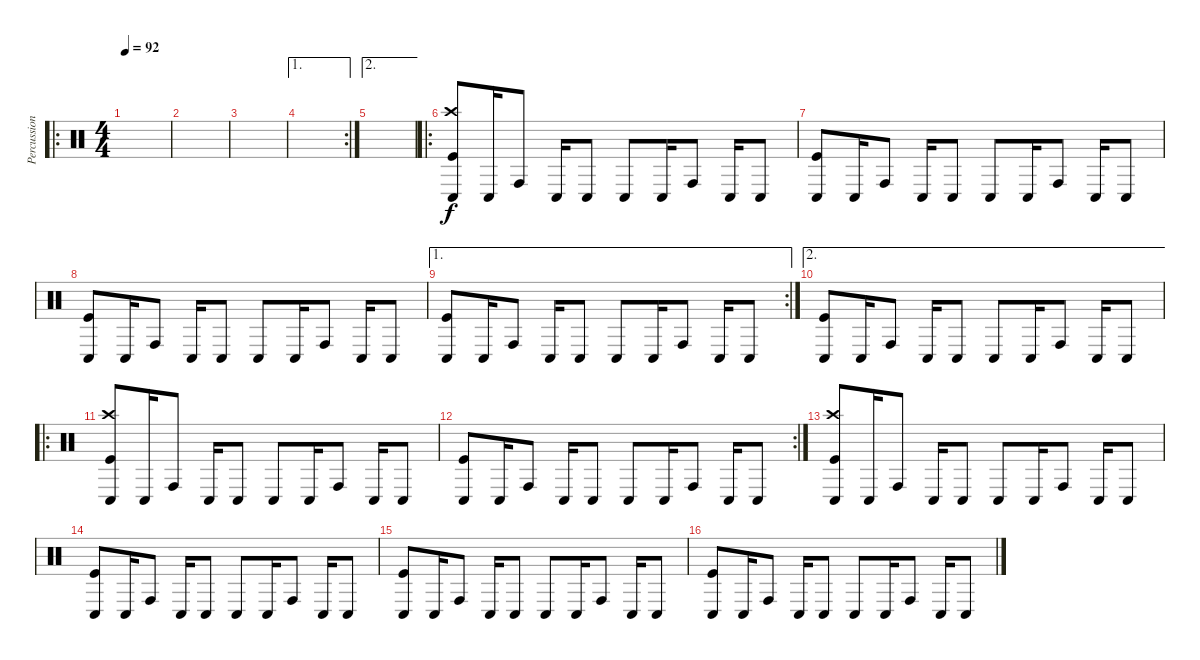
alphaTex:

\track ("Percussion" "Percussion") {instrument percussion}
\staff {score}
\articulation defaults
\ro
\ts (4 4)
\tempo 92
\clef neutral
\ks c
|
|
|
\ae 1
\rc 2
|
\ae 2
|
\ro
("Kick (hit)" "Crash high (hit)" "Conga low (hit)").8 "Conga low (hit)".16 "Conga high (hit)".8 "Conga low (hit)".16 "Conga low (hit)".8 "Conga low (hit)".8 "Conga low (hit)".16 "Conga high (hit)".8 "Conga low (hit)".16 "Conga low (hit)".8 |
("Kick (hit)" "Conga low (hit)").8 "Conga low (hit)".16 "Conga high (hit)".8 "Conga low (hit)".16 "Conga low (hit)".8 "Conga low (hit)".8 "Conga low (hit)".16 "Conga high (hit)".8 "Conga low (hit)".16 "Conga low (hit)".8 |
("Kick (hit)" "Conga low (hit)").8 "Conga low (hit)".16 "Conga high (hit)".8 "Conga low (hit)".16 "Conga low (hit)".8 "Conga low (hit)".8 "Conga low (hit)".16 "Conga high (hit)".8 "Conga low (hit)".16 "Conga low (hit)".8 |
\ae 1
\rc 2
("Kick (hit)" "Conga low (hit)").8 "Conga low (hit)".16 "Conga high (hit)".8 "Conga low (hit)".16 "Conga low (hit)".8 "Conga low (hit)".8 "Conga low (hit)".16 "Conga high (hit)".8 "Conga low (hit)".16 "Conga low (hit)".8 |
\ae 2
("Kick (hit)" "Conga low (hit)").8 "Conga low (hit)".16 "Conga high (hit)".8 "Conga low (hit)".16 "Conga low (hit)".8 "Conga low (hit)".8 "Conga low (hit)".16 "Conga high (hit)".8 "Conga low (hit)".16 "Conga low (hit)".8 |
\ro
("Kick (hit)" "Crash high (hit)" "Conga low (hit)").8 "Conga low (hit)".16 "Conga high (hit)".8 "Conga low (hit)".16 "Conga low (hit)".8 "Conga low (hit)".8 "Conga low (hit)".16 "Conga high (hit)".8 "Conga low (hit)".16 "Conga low (hit)".8 |
\rc 2
("Kick (hit)" "Conga low (hit)").8 "Conga low (hit)".16 "Conga high (hit)".8 "Conga low (hit)".16 "Conga low (hit)".8 "Conga low (hit)".8 "Conga low (hit)".16 "Conga high (hit)".8 "Conga low (hit)".16 "Conga low (hit)".8 |
("Kick (hit)" "Crash high (hit)" "Conga low (hit)").8 "Conga low (hit)".16 "Conga high (hit)".8 "Conga low (hit)".16 "Conga low (hit)".8 "Conga low (hit)".8 "Conga low (hit)".16 "Conga high (hit)".8 "Conga low (hit)".16 "Conga low (hit)".8 |
("Kick (hit)" "Conga low (hit)").8 "Conga low (hit)".16 "Conga high (hit)".8 "Conga low (hit)".16 "Conga low (hit)".8 "Conga low (hit)".8 "Conga low (hit)".16 "Conga high (hit)".8 "Conga low (hit)".16 "Conga low (hit)".8 |
("Kick (hit)" "Conga low (hit)").8 "Conga low (hit)".16 "Conga high (hit)".8 "Conga low (hit)".16 "Conga low (hit)".8 "Conga low (hit)".8 "Conga low (hit)".16 "Conga high (hit)".8 "Conga low (hit)".16 "Conga low (hit)".8 |
("Kick (hit)" "Conga low (hit)").8 "Conga low (hit)".16 "Conga high (hit)".8 "Conga low (hit)".16 "Conga low (hit)".8 "Conga low (hit)".8 "Conga low (hit)".16 "Conga high (hit)".8 "Conga low (hit)".16 "Conga low (hit)".8
